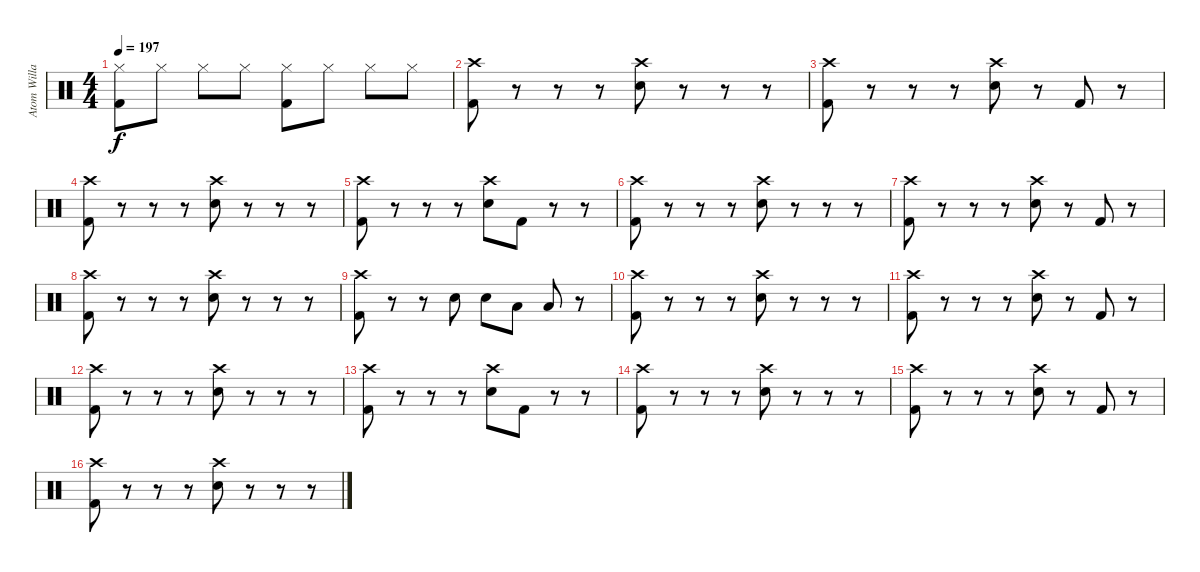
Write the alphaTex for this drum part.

\track ("Atom Willard Drums" "Atom Willa") {instrument percussion}
\staff {score}
\articulation defaults
\ts (4 4)
\tempo 197
\clef neutral
\ks c
("Hi-Hat (closed)" "Kick (hit) 2").8{dy f} "Hi-Hat (closed)".8 "Hi-Hat (closed)".8 "Hi-Hat (closed)".8 ("Hi-Hat (closed)" "Kick (hit) 2").8 "Hi-Hat (closed)".8 "Hi-Hat (closed)".8 "Hi-Hat (closed)".8 |
("Crash high (hit)" "Kick (hit) 2").8 r.8 r.8 r.8 ("Crash high (hit)" "Electric Snare (hit)").8 r.8 r.8 r.8 |
("Crash high (hit)" "Kick (hit) 2").8 r.8 r.8 r.8 ("Crash high (hit)" "Electric Snare (hit)").8 r.8 "Kick (hit) 2".8 r.8 |
("Crash high (hit)" "Kick (hit) 2").8 r.8 r.8 r.8 ("Crash high (hit)" "Electric Snare (hit)").8 r.8 r.8 r.8 |
("Crash high (hit)" "Kick (hit) 2").8 r.8 r.8 r.8 ("Crash high (hit)" "Electric Snare (hit)").8 "Kick (hit) 2".8 r.8 r.8 |
("Crash high (hit)" "Kick (hit) 2").8 r.8 r.8 r.8 ("Crash high (hit)" "Electric Snare (hit)").8 r.8 r.8 r.8 |
("Crash high (hit)" "Kick (hit) 2").8 r.8 r.8 r.8 ("Crash high (hit)" "Electric Snare (hit)").8 r.8 "Kick (hit) 2".8 r.8 |
("Crash high (hit)" "Kick (hit) 2").8 r.8 r.8 r.8 ("Crash high (hit)" "Electric Snare (hit)").8 r.8 r.8 r.8 |
("Crash high (hit)" "Kick (hit) 2").8 r.8 r.8 "Electric Snare (hit)".8 "Electric Snare (hit)".8 "Low Tom (hit)".8 "Low Tom (hit)".8 r.8 |
("Crash high (hit)" "Kick (hit) 2").8 r.8 r.8 r.8 ("Crash high (hit)" "Electric Snare (hit)").8 r.8 r.8 r.8 |
("Crash high (hit)" "Kick (hit) 2").8 r.8 r.8 r.8 ("Crash high (hit)" "Electric Snare (hit)").8 r.8 "Kick (hit) 2".8 r.8 |
("Crash high (hit)" "Kick (hit) 2").8 r.8 r.8 r.8 ("Crash high (hit)" "Electric Snare (hit)").8 r.8 r.8 r.8 |
("Crash high (hit)" "Kick (hit) 2").8 r.8 r.8 r.8 ("Crash high (hit)" "Electric Snare (hit)").8 "Kick (hit) 2".8 r.8 r.8 |
("Crash high (hit)" "Kick (hit) 2").8 r.8 r.8 r.8 ("Crash high (hit)" "Electric Snare (hit)").8 r.8 r.8 r.8 |
("Crash high (hit)" "Kick (hit) 2").8 r.8 r.8 r.8 ("Crash high (hit)" "Electric Snare (hit)").8 r.8 "Kick (hit) 2".8 r.8 |
("Crash high (hit)" "Kick (hit) 2").8 r.8 r.8 r.8 ("Crash high (hit)" "Electric Snare (hit)").8 r.8 r.8 r.8
